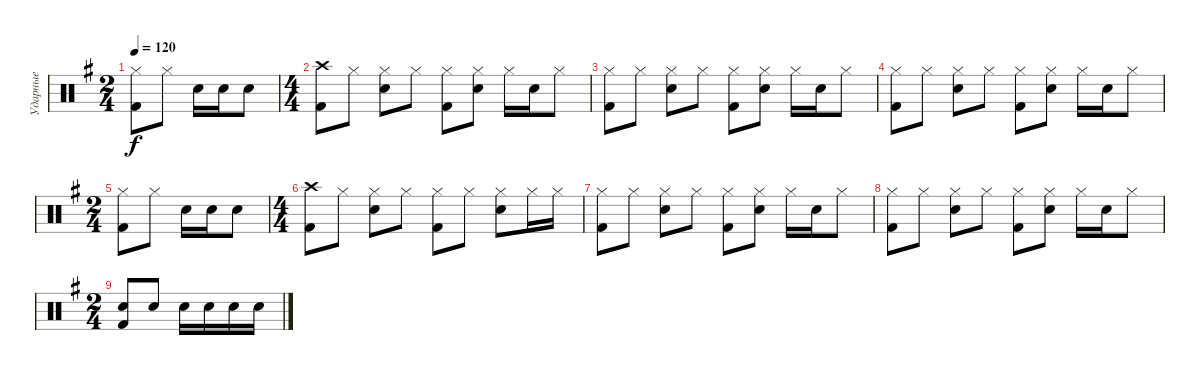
\track ("Ударные" "Ударные") {instrument percussion}
\staff {score}
\articulation defaults
\ts (2 4)
\tempo 120
\clef neutral
\ks g
("Hi-Hat (closed)" "Kick (hit) 2").8{dy f} "Hi-Hat (closed)".8 "Snare (hit) 2".16 "Snare (hit) 2".16 "Snare (hit) 2".8 |
\ts (4 4)
("Crash high (hit)" "Kick (hit) 2").8 "Hi-Hat (closed)".8 ("Hi-Hat (closed)" "Snare (hit) 2").8 "Hi-Hat (closed)".8 ("Hi-Hat (closed)" "Kick (hit) 2").8 ("Hi-Hat (closed)" "Snare (hit) 2").8 "Hi-Hat (closed)".16 "Snare (hit) 2".16 "Hi-Hat (closed)".8 |
("Hi-Hat (closed)" "Kick (hit) 2").8 "Hi-Hat (closed)".8 ("Hi-Hat (closed)" "Snare (hit) 2").8 "Hi-Hat (closed)".8 ("Hi-Hat (closed)" "Kick (hit) 2").8 ("Hi-Hat (closed)" "Snare (hit) 2").8 "Hi-Hat (closed)".16 "Snare (hit) 2".16 "Hi-Hat (closed)".8 |
("Hi-Hat (closed)" "Kick (hit) 2").8 "Hi-Hat (closed)".8 ("Hi-Hat (closed)" "Snare (hit) 2").8 "Hi-Hat (closed)".8 ("Hi-Hat (closed)" "Kick (hit) 2").8 ("Hi-Hat (closed)" "Snare (hit) 2").8 "Hi-Hat (closed)".16 "Snare (hit) 2".16 "Hi-Hat (closed)".8 |
\ts (2 4)
("Hi-Hat (closed)" "Kick (hit) 2").8 "Hi-Hat (closed)".8 "Snare (hit) 2".16 "Snare (hit) 2".16 "Snare (hit) 2".8 |
\ts (4 4)
("Crash high (hit)" "Kick (hit) 2").8 "Hi-Hat (closed)".8 ("Hi-Hat (closed)" "Snare (hit) 2").8 "Hi-Hat (closed)".8 ("Hi-Hat (closed)" "Kick (hit) 2").8 "Hi-Hat (closed)".8 ("Hi-Hat (closed)" "Snare (hit) 2").8 "Hi-Hat (closed)".16 "Hi-Hat (closed)".16 |
("Hi-Hat (closed)" "Kick (hit) 2").8 "Hi-Hat (closed)".8 ("Hi-Hat (closed)" "Snare (hit) 2").8 "Hi-Hat (closed)".8 ("Hi-Hat (closed)" "Kick (hit) 2").8 ("Hi-Hat (closed)" "Snare (hit) 2").8 "Hi-Hat (closed)".16 "Snare (hit) 2".16 "Hi-Hat (closed)".8 |
("Hi-Hat (closed)" "Kick (hit) 2").8 "Hi-Hat (closed)".8 ("Hi-Hat (closed)" "Snare (hit) 2").8 "Hi-Hat (closed)".8 ("Hi-Hat (closed)" "Kick (hit) 2").8 ("Hi-Hat (closed)" "Snare (hit) 2").8 "Hi-Hat (closed)".16 "Snare (hit) 2".16 "Hi-Hat (closed)".8 |
\ts (2 4)
("Snare (hit) 2" "Kick (hit) 2").8 "Snare (hit) 2".8 "Snare (hit) 2".16 "Snare (hit) 2".16 "Snare (hit) 2".16 "Snare (hit) 2".16
